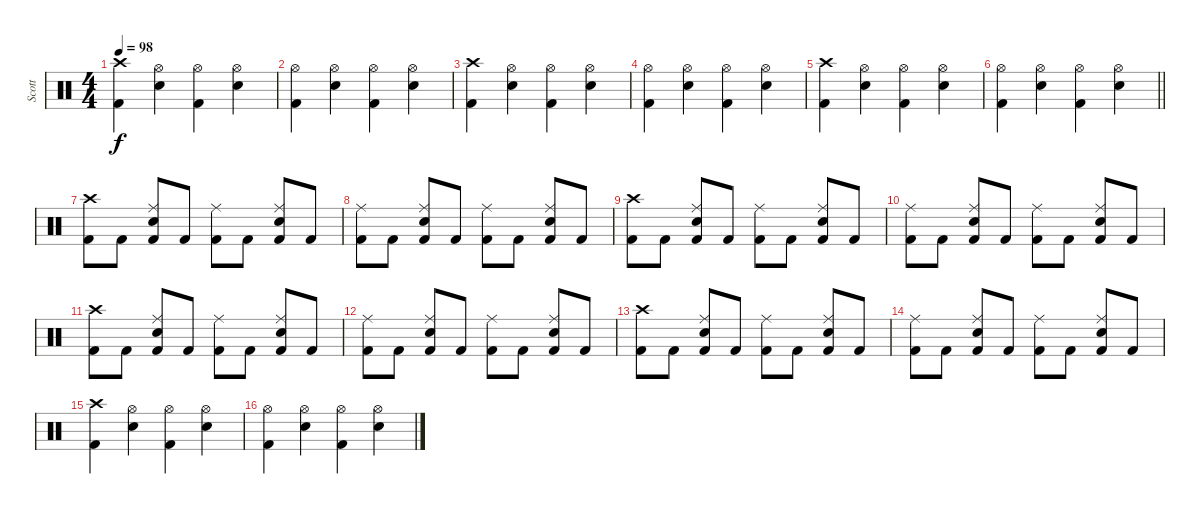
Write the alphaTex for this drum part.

\track ("Scott" "Scott") {instrument percussion}
\staff {score}
\articulation defaults
\ts (4 4)
\tempo 98
\clef neutral
\ks c
("Crash high (hit)" "Kick (hit) 2").4{dy f} ("Hi-Hat (open)" "Snare (hit) 2").4 ("Hi-Hat (open)" "Kick (hit) 2").4 ("Hi-Hat (open)" "Snare (hit) 2").4 |
("Hi-Hat (open)" "Kick (hit) 2").4 ("Hi-Hat (open)" "Snare (hit) 2").4 ("Hi-Hat (open)" "Kick (hit) 2").4 ("Hi-Hat (open)" "Snare (hit) 2").4 |
("Crash high (hit)" "Kick (hit) 2").4 ("Hi-Hat (open)" "Snare (hit) 2").4 ("Hi-Hat (open)" "Kick (hit) 2").4 ("Hi-Hat (open)" "Snare (hit) 2").4 |
("Hi-Hat (open)" "Kick (hit) 2").4 ("Hi-Hat (open)" "Snare (hit) 2").4 ("Hi-Hat (open)" "Kick (hit) 2").4 ("Hi-Hat (open)" "Snare (hit) 2").4 |
("Crash high (hit)" "Kick (hit) 2").4 ("Hi-Hat (open)" "Snare (hit) 2").4 ("Hi-Hat (open)" "Kick (hit) 2").4 ("Hi-Hat (open)" "Snare (hit) 2").4 |
\barLineRight lightlight
("Hi-Hat (open)" "Kick (hit) 2").4 ("Hi-Hat (open)" "Snare (hit) 2").4 ("Hi-Hat (open)" "Kick (hit) 2").4 ("Hi-Hat (open)" "Snare (hit) 2").4 |
("Crash high (hit)" "Kick (hit) 2").8 "Kick (hit) 2".8 ("Ride (middle)" "Electric Snare (hit)" "Kick (hit) 2").8 "Kick (hit) 2".8 ("Ride (middle)" "Kick (hit) 2").8 "Kick (hit) 2".8 ("Ride (middle)" "Electric Snare (hit)" "Kick (hit) 2").8 "Kick (hit) 2".8 |
("Ride (middle)" "Kick (hit) 2").8 "Kick (hit) 2".8 ("Ride (middle)" "Electric Snare (hit)" "Kick (hit) 2").8 "Kick (hit) 2".8 ("Ride (middle)" "Kick (hit) 2").8 "Kick (hit) 2".8 ("Ride (middle)" "Electric Snare (hit)" "Kick (hit) 2").8 "Kick (hit) 2".8 |
("Crash high (hit)" "Kick (hit) 2").8 "Kick (hit) 2".8 ("Ride (middle)" "Electric Snare (hit)" "Kick (hit) 2").8 "Kick (hit) 2".8 ("Ride (middle)" "Kick (hit) 2").8 "Kick (hit) 2".8 ("Ride (middle)" "Electric Snare (hit)" "Kick (hit) 2").8 "Kick (hit) 2".8 |
("Ride (middle)" "Kick (hit) 2").8 "Kick (hit) 2".8 ("Ride (middle)" "Electric Snare (hit)" "Kick (hit) 2").8 "Kick (hit) 2".8 ("Ride (middle)" "Kick (hit) 2").8 "Kick (hit) 2".8 ("Ride (middle)" "Electric Snare (hit)" "Kick (hit) 2").8 "Kick (hit) 2".8 |
("Crash high (hit)" "Kick (hit) 2").8 "Kick (hit) 2".8 ("Ride (middle)" "Electric Snare (hit)" "Kick (hit) 2").8 "Kick (hit) 2".8 ("Ride (middle)" "Kick (hit) 2").8 "Kick (hit) 2".8 ("Ride (middle)" "Electric Snare (hit)" "Kick (hit) 2").8 "Kick (hit) 2".8 |
("Ride (middle)" "Kick (hit) 2").8 "Kick (hit) 2".8 ("Ride (middle)" "Electric Snare (hit)" "Kick (hit) 2").8 "Kick (hit) 2".8 ("Ride (middle)" "Kick (hit) 2").8 "Kick (hit) 2".8 ("Ride (middle)" "Electric Snare (hit)" "Kick (hit) 2").8 "Kick (hit) 2".8 |
("Crash high (hit)" "Kick (hit) 2").8 "Kick (hit) 2".8 ("Ride (middle)" "Electric Snare (hit)" "Kick (hit) 2").8 "Kick (hit) 2".8 ("Ride (middle)" "Kick (hit) 2").8 "Kick (hit) 2".8 ("Ride (middle)" "Electric Snare (hit)" "Kick (hit) 2").8 "Kick (hit) 2".8 |
("Ride (middle)" "Kick (hit) 2").8 "Kick (hit) 2".8 ("Ride (middle)" "Electric Snare (hit)" "Kick (hit) 2").8 "Kick (hit) 2".8 ("Ride (middle)" "Kick (hit) 2").8 "Kick (hit) 2".8 ("Ride (middle)" "Electric Snare (hit)" "Kick (hit) 2").8 "Kick (hit) 2".8 |
("Crash high (hit)" "Kick (hit) 2").4 ("Hi-Hat (open)" "Snare (hit) 2").4 ("Hi-Hat (open)" "Kick (hit) 2").4 ("Hi-Hat (open)" "Snare (hit) 2").4 |
("Hi-Hat (open)" "Kick (hit) 2").4 ("Hi-Hat (open)" "Snare (hit) 2").4 ("Hi-Hat (open)" "Kick (hit) 2").4 ("Hi-Hat (open)" "Snare (hit) 2").4
